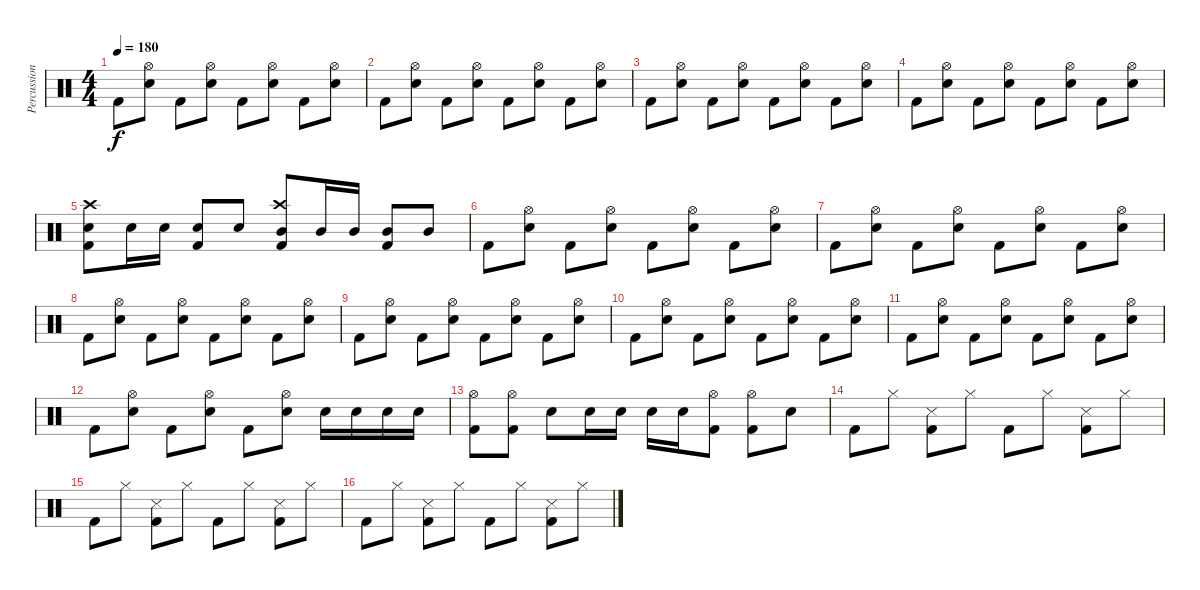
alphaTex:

\track ("Percussion" "Percussion") {instrument percussion}
\staff {score}
\articulation defaults
\ts (4 4)
\tempo 180
\clef neutral
\ks c "Kick (hit) 2".8{dy f}
("Hi-Hat (open)" "Electric Snare (hit)").8 "Kick (hit) 2".8 ("Hi-Hat (open)" "Electric Snare (hit)").8 "Kick (hit) 2".8 ("Hi-Hat (open)" "Electric Snare (hit)").8 "Kick (hit) 2".8 ("Hi-Hat (open)" "Electric Snare (hit)").8 |
"Kick (hit) 2".8 ("Hi-Hat (open)" "Electric Snare (hit)").8 "Kick (hit) 2".8 ("Hi-Hat (open)" "Electric Snare (hit)").8 "Kick (hit) 2".8 ("Hi-Hat (open)" "Electric Snare (hit)").8 "Kick (hit) 2".8 ("Hi-Hat (open)" "Electric Snare (hit)").8 |
"Kick (hit) 2".8 ("Hi-Hat (open)" "Electric Snare (hit)").8 "Kick (hit) 2".8 ("Hi-Hat (open)" "Electric Snare (hit)").8 "Kick (hit) 2".8 ("Hi-Hat (open)" "Electric Snare (hit)").8 "Kick (hit) 2".8 ("Hi-Hat (open)" "Electric Snare (hit)").8 |
"Kick (hit) 2".8 ("Hi-Hat (open)" "Electric Snare (hit)").8 "Kick (hit) 2".8 ("Hi-Hat (open)" "Electric Snare (hit)").8 "Kick (hit) 2".8 ("Hi-Hat (open)" "Electric Snare (hit)").8 "Kick (hit) 2".8 ("Hi-Hat (open)" "Electric Snare (hit)").8 |
("Crash high (hit)" "Electric Snare (hit)" "Kick (hit) 2").8 "Electric Snare (hit)".16 "Electric Snare (hit)".16 ("Electric Snare (hit)" "Kick (hit) 2").8 "Electric Snare (hit)".8 ("Crash high (hit)" "Mid Tom (hit)" "Kick (hit) 2").8 "Mid Tom (hit)".16 "Mid Tom (hit)".16 ("Mid Tom (hit)" "Kick (hit) 2").8 "Mid Tom (hit)".8 |
"Kick (hit) 2".8 ("Hi-Hat (open)" "Electric Snare (hit)").8 "Kick (hit) 2".8 ("Hi-Hat (open)" "Electric Snare (hit)").8 "Kick (hit) 2".8 ("Hi-Hat (open)" "Electric Snare (hit)").8 "Kick (hit) 2".8 ("Hi-Hat (open)" "Electric Snare (hit)").8 |
"Kick (hit) 2".8 ("Hi-Hat (open)" "Electric Snare (hit)").8 "Kick (hit) 2".8 ("Hi-Hat (open)" "Electric Snare (hit)").8 "Kick (hit) 2".8 ("Hi-Hat (open)" "Electric Snare (hit)").8 "Kick (hit) 2".8 ("Hi-Hat (open)" "Electric Snare (hit)").8 |
"Kick (hit) 2".8 ("Hi-Hat (open)" "Electric Snare (hit)").8 "Kick (hit) 2".8 ("Hi-Hat (open)" "Electric Snare (hit)").8 "Kick (hit) 2".8 ("Hi-Hat (open)" "Electric Snare (hit)").8 "Kick (hit) 2".8 ("Hi-Hat (open)" "Electric Snare (hit)").8 |
"Kick (hit) 2".8 ("Hi-Hat (open)" "Electric Snare (hit)").8 "Kick (hit) 2".8 ("Hi-Hat (open)" "Electric Snare (hit)").8 "Kick (hit) 2".8 ("Hi-Hat (open)" "Electric Snare (hit)").8 "Kick (hit) 2".8 ("Hi-Hat (open)" "Electric Snare (hit)").8 |
"Kick (hit) 2".8 ("Hi-Hat (open)" "Electric Snare (hit)").8 "Kick (hit) 2".8 ("Hi-Hat (open)" "Electric Snare (hit)").8 "Kick (hit) 2".8 ("Hi-Hat (open)" "Electric Snare (hit)").8 "Kick (hit) 2".8 ("Hi-Hat (open)" "Electric Snare (hit)").8 |
"Kick (hit) 2".8 ("Hi-Hat (open)" "Electric Snare (hit)").8 "Kick (hit) 2".8 ("Hi-Hat (open)" "Electric Snare (hit)").8 "Kick (hit) 2".8 ("Hi-Hat (open)" "Electric Snare (hit)").8 "Kick (hit) 2".8 ("Hi-Hat (open)" "Electric Snare (hit)").8 |
"Kick (hit) 2".8 ("Hi-Hat (open)" "Electric Snare (hit)").8 "Kick (hit) 2".8 ("Hi-Hat (open)" "Electric Snare (hit)").8 "Kick (hit) 2".8 ("Hi-Hat (open)" "Electric Snare (hit)").8 "Electric Snare (hit)".16 "Electric Snare (hit)".16 "Electric Snare (hit)".16 "Electric Snare (hit)".16 |
("Hi-Hat (open)" "Kick (hit) 2").8 ("Hi-Hat (open)" "Kick (hit) 2").8 "Electric Snare (hit)".8 "Electric Snare (hit)".16 "Electric Snare (hit)".16 "Electric Snare (hit)".16 "Electric Snare (hit)".16 ("Hi-Hat (open)" "Kick (hit) 2").8 ("Hi-Hat (open)" "Kick (hit) 2").8 "Electric Snare (hit)".8 |
"Kick (hit) 2".8 "Hi-Hat (closed)".8 ("Snare (side stick) 3" "Kick (hit) 2").8 "Hi-Hat (closed)".8 "Kick (hit) 2".8 "Hi-Hat (closed)".8 ("Snare (side stick) 3" "Kick (hit) 2").8 "Hi-Hat (closed)".8 |
"Kick (hit) 2".8 "Hi-Hat (closed)".8 ("Snare (side stick) 3" "Kick (hit) 2").8 "Hi-Hat (closed)".8 "Kick (hit) 2".8 "Hi-Hat (closed)".8 ("Snare (side stick) 3" "Kick (hit) 2").8 "Hi-Hat (closed)".8 |
"Kick (hit) 2".8 "Hi-Hat (closed)".8 ("Snare (side stick) 3" "Kick (hit) 2").8 "Hi-Hat (closed)".8 "Kick (hit) 2".8 "Hi-Hat (closed)".8 ("Snare (side stick) 3" "Kick (hit) 2").8 "Hi-Hat (closed)".8
